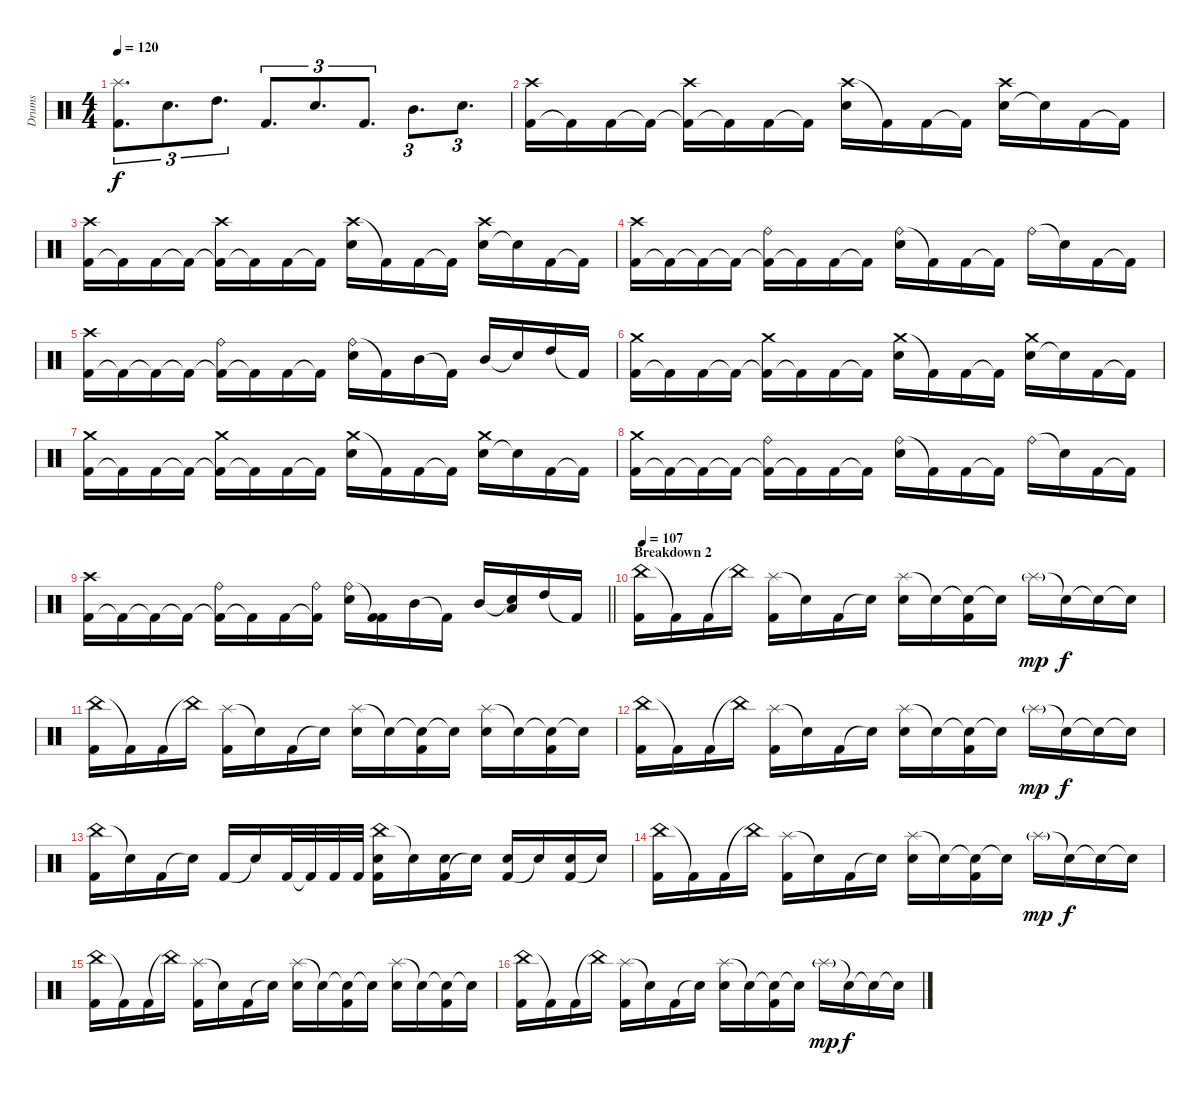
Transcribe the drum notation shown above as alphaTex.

\track ("Drums" "Drums") {instrument percussion}
\staff {score}
\articulation defaults
\ts (4 4)
\tempo 120
\clef neutral
\ks c
("Splash (hit)" "Kick (hit) 2").8{d tu (3 2) dy f} "Electric Snare (hit)".8{d tu (3 2)} "High Tom (hit)".8{d tu (3 2)} "Kick (hit) 2".8{d tu (3 2)} "Electric Snare (hit)".8{d tu (3 2)} "Kick (hit) 2".8{d tu (3 2)} "Mid Tom (hit)".8{d tu (3 2)} "Electric Snare (hit)".8{d tu (3 2)} |
("Kick (hit) 2" "Crash high (hit)").16 "Kick (hit) 2"{t}.16 "Kick (hit) 2".16 "Kick (hit) 2"{t}.16 ("Kick (hit) 2"{t} "Crash high (hit)").16 "Kick (hit) 2"{t}.16 "Kick (hit) 2".16 "Kick (hit) 2"{t}.16 ("Crash high (hit)" "Electric Snare (hit)").16 "Kick (hit) 2"{t}.16 "Kick (hit) 2".16 "Kick (hit) 2"{t}.16 ("Electric Snare (hit)" "Crash high (hit)").16 "Snare (hit)"{t}.16 "Kick (hit) 2".16 "Kick (hit) 2"{t}.16 |
("Kick (hit) 2" "Crash high (hit)").16 "Kick (hit) 2"{t}.16 "Kick (hit) 2".16 "Kick (hit) 2"{t}.16 ("Kick (hit) 2"{t} "Crash high (hit)").16 "Kick (hit) 2"{t}.16 "Kick (hit) 2".16 "Kick (hit) 2"{t}.16 ("Crash high (hit)" "Electric Snare (hit)").16 "Kick (hit) 2"{t}.16 "Kick (hit) 2".16 "Kick (hit) 2"{t}.16 ("Electric Snare (hit)" "Crash high (hit)").16 "Snare (hit)"{t}.16 "Kick (hit) 2".16 "Kick (hit) 2"{t}.16 |
("Kick (hit) 2" "Crash high (hit)").16 "Kick (hit) 2"{t}.16 "Kick (hit) 2"{t}.16 "Kick (hit) 2"{t}.16 ("Kick (hit) 2"{t} "Ride (bell)").16 "Kick (hit) 2"{t}.16 "Kick (hit) 2".16 "Kick (hit) 2"{t}.16 ("Ride (bell)" "Electric Snare (hit)").16 "Kick (hit) 2"{t}.16 "Kick (hit) 2".16 "Kick (hit) 2"{t}.16 "Ride (bell)".16 "Snare (hit)"{t}.16 "Kick (hit) 2".16 "Kick (hit) 2"{t}.16 |
("Kick (hit) 2" "Crash high (hit)").16 "Kick (hit) 2"{t}.16 "Kick (hit) 2"{t}.16 "Kick (hit) 2"{t}.16 ("Kick (hit) 2"{t} "Ride (bell)").16 "Kick (hit) 2"{t}.16 "Kick (hit) 2".16 "Kick (hit) 2"{t}.16 ("Ride (bell)" "Electric Snare (hit)").16 "Kick (hit) 2"{t}.16 "Mid Tom (hit)".16 "Kick (hit) 2"{t}.16 "Mid Tom (hit)".16 "Snare (hit)"{t}.16 "High Tom (hit)".16 "Kick (hit) 2"{t}.16 |
("Kick (hit) 2" "Crash medium (hit)").16 "Kick (hit) 2"{t}.16 "Kick (hit) 2".16 "Kick (hit) 2"{t}.16 ("Kick (hit) 2"{t} "Crash medium (hit)").16 "Kick (hit) 2"{t}.16 "Kick (hit) 2".16 "Kick (hit) 2"{t}.16 ("Crash medium (hit)" "Electric Snare (hit)").16 "Kick (hit) 2"{t}.16 "Kick (hit) 2".16 "Kick (hit) 2"{t}.16 ("Electric Snare (hit)" "Crash medium (hit)").16 "Snare (hit)"{t}.16 "Kick (hit) 2".16 "Kick (hit) 2"{t}.16 |
("Kick (hit) 2" "Crash medium (hit)").16 "Kick (hit) 2"{t}.16 "Kick (hit) 2".16 "Kick (hit) 2"{t}.16 ("Kick (hit) 2"{t} "Crash medium (hit)").16 "Kick (hit) 2"{t}.16 "Kick (hit) 2".16 "Kick (hit) 2"{t}.16 ("Crash medium (hit)" "Electric Snare (hit)").16 "Kick (hit) 2"{t}.16 "Kick (hit) 2".16 "Kick (hit) 2"{t}.16 ("Electric Snare (hit)" "Crash medium (hit)").16 "Snare (hit)"{t}.16 "Kick (hit) 2".16 "Kick (hit) 2"{t}.16 |
("Kick (hit) 2" "Crash medium (hit)").16 "Kick (hit) 2"{t}.16 "Kick (hit) 2"{t}.16 "Kick (hit) 2"{t}.16 ("Kick (hit) 2"{t} "Ride (bell)").16 "Kick (hit) 2"{t}.16 "Kick (hit) 2".16 "Kick (hit) 2"{t}.16 ("Ride (bell)" "Electric Snare (hit)").16 "Kick (hit) 2"{t}.16 "Kick (hit) 2".16 "Kick (hit) 2"{t}.16 "Ride (bell)".16 "Snare (hit)"{t}.16 "Kick (hit) 2".16 "Kick (hit) 2"{t}.16 |
\barLineRight lightlight
("Kick (hit) 2" "Crash high (hit)").16 "Kick (hit) 2"{t}.16 "Kick (hit) 2"{t}.16 "Kick (hit) 2"{t}.16 ("Kick (hit) 2"{t} "Ride (bell)").16 "Kick (hit) 2"{t}.16 "Kick (hit) 2".16 ("Kick (hit) 2"{t} "Ride (bell)").16 ("Ride (bell)" "Electric Snare (hit)").16 ("Kick (hit) 2"{t} "Kick (hit) 2").16 "Mid Tom (hit)".16 "Kick (hit) 2"{t}.16 "Mid Tom (hit)".16 ("Snare (hit)"{t} "Low Tom (hit)").16 "High Tom (hit)".16 "Kick (hit) 2"{t}.16 |
\section ("" "Breakdown 2")
\tempo 107
("China (hit)" "Kick (hit) 2").16 "Kick (hit) 2"{t}.16 "Kick (hit) 2".16 "China (hit)"{t}.16 ("Splash (hit)" "Kick (hit) 2").16 "Snare (hit)"{t}.16 "Kick (hit) 2".16 "Snare (hit)"{t}.16 ("Splash (hit)" "Electric Snare (hit)").16 "Snare (hit)"{t}.16 ("Snare (hit)"{t} "Kick (hit) 2").16 "Snare (hit)"{t}.16 "Splash (hit)"{g}.16{dy mp} "Snare (hit)"{t}.16{dy f} "Snare (hit)"{t}.16 "Snare (hit)"{t}.16 |
("China (hit)" "Kick (hit) 2").16 "Kick (hit) 2"{t}.16 "Kick (hit) 2".16 "China (hit)"{t}.16 ("Splash (hit)" "Kick (hit) 2").16 "Snare (hit)"{t}.16 "Kick (hit) 2".16 "Snare (hit)"{t}.16 ("Splash (hit)" "Electric Snare (hit)").16 "Snare (hit)"{t}.16 ("Snare (hit)"{t} "Kick (hit) 2").16 "Snare (hit)"{t}.16 ("Splash (hit)" "Electric Snare (hit)").16 "Snare (hit)"{t}.16 ("Snare (hit)"{t} "Kick (hit) 2").16 "Snare (hit)"{t}.16 |
("China (hit)" "Kick (hit) 2").16 "Kick (hit) 2"{t}.16 "Kick (hit) 2".16 "China (hit)"{t}.16 ("Splash (hit)" "Kick (hit) 2").16 "Snare (hit)"{t}.16 "Kick (hit) 2".16 "Snare (hit)"{t}.16 ("Splash (hit)" "Electric Snare (hit)").16 "Snare (hit)"{t}.16 ("Snare (hit)"{t} "Kick (hit) 2").16 "Snare (hit)"{t}.16 "Splash (hit)"{g}.16{dy mp} "Snare (hit)"{t}.16{dy f} "Snare (hit)"{t}.16 "Snare (hit)"{t}.16 |
("China (hit)" "Kick (hit) 2").16 "Snare (hit)"{t}.16 "Kick (hit) 2".16 "Snare (hit)"{t}.16 "Kick (hit) 2".16 "Snare (hit)"{t}.16 "Kick (hit) 2".32 "Kick (hit) 2"{t}.32 "Kick (hit) 2".32 "Kick (hit) 2".32 ("China (hit)" "Kick (hit) 2" "Electric Snare (hit)").16 "Snare (hit)"{t}.16 ("Kick (hit) 2" "Electric Snare (hit)").16 "Snare (hit)"{t}.16 ("Kick (hit) 2" "Electric Snare (hit)").16 "Snare (hit)"{t}.16 ("Kick (hit) 2" "Electric Snare (hit)").16 "Snare (hit)"{t}.16 |
("China (hit)" "Kick (hit) 2").16 "Kick (hit) 2"{t}.16 "Kick (hit) 2".16 "China (hit)"{t}.16 ("Splash (hit)" "Kick (hit) 2").16 "Snare (hit)"{t}.16 "Kick (hit) 2".16 "Snare (hit)"{t}.16 ("Splash (hit)" "Electric Snare (hit)").16 "Snare (hit)"{t}.16 ("Snare (hit)"{t} "Kick (hit) 2").16 "Snare (hit)"{t}.16 "Splash (hit)"{g}.16{dy mp} "Snare (hit)"{t}.16{dy f} "Snare (hit)"{t}.16 "Snare (hit)"{t}.16 |
("China (hit)" "Kick (hit) 2").16 "Kick (hit) 2"{t}.16 "Kick (hit) 2".16 "China (hit)"{t}.16 ("Splash (hit)" "Kick (hit) 2").16 "Snare (hit)"{t}.16 "Kick (hit) 2".16 "Snare (hit)"{t}.16 ("Splash (hit)" "Electric Snare (hit)").16 "Snare (hit)"{t}.16 ("Snare (hit)"{t} "Kick (hit) 2").16 "Snare (hit)"{t}.16 ("Splash (hit)" "Electric Snare (hit)").16 "Snare (hit)"{t}.16 ("Snare (hit)"{t} "Kick (hit) 2").16 "Snare (hit)"{t}.16 |
("China (hit)" "Kick (hit) 2").16 "Kick (hit) 2"{t}.16 "Kick (hit) 2".16 "China (hit)"{t}.16 ("Splash (hit)" "Kick (hit) 2").16 "Snare (hit)"{t}.16 "Kick (hit) 2".16 "Snare (hit)"{t}.16 ("Splash (hit)" "Electric Snare (hit)").16 "Snare (hit)"{t}.16 ("Snare (hit)"{t} "Kick (hit) 2").16 "Snare (hit)"{t}.16 "Splash (hit)"{g}.16{dy mp} "Snare (hit)"{t}.16{dy f} "Snare (hit)"{t}.16 "Snare (hit)"{t}.16
